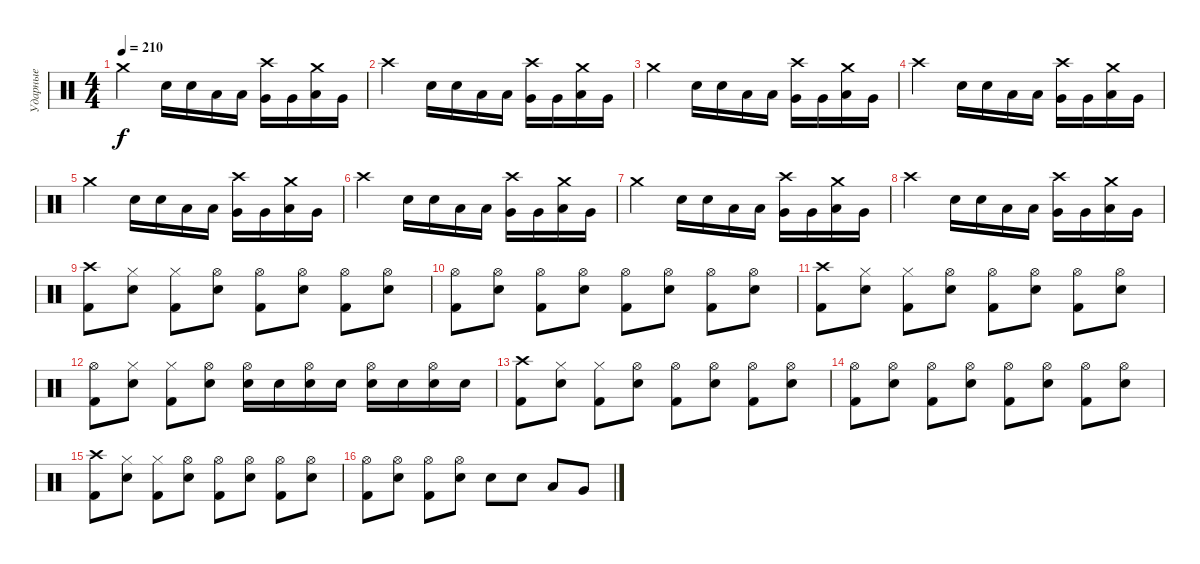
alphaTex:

\track ("Ударные" "Ударные") {instrument percussion}
\staff {score}
\articulation defaults
\ts (4 4)
\tempo 210
\clef neutral
\ks c "Crash medium (hit)".2{dy f} "Snare (hit) 2".16 "Snare (hit) 2".16 "Low Tom (hit)".16 "Low Tom (hit)".16
("Crash high (hit)" "Very Low Tom (hit)").16 "Very Low Tom (hit)".16 ("Crash medium (hit)" "Low Floor Tom (hit)").16 "Very Low Tom (hit)".16 |
"Crash high (hit)".2 "Snare (hit) 2".16 "Snare (hit) 2".16 "Low Tom (hit)".16 "Low Tom (hit)".16 ("Crash high (hit)" "Very Low Tom (hit)").16 "Very Low Tom (hit)".16 ("Crash medium (hit)" "Low Floor Tom (hit)").16 "Very Low Tom (hit)".16 |
"Crash medium (hit)".2 "Snare (hit) 2".16 "Snare (hit) 2".16 "Low Tom (hit)".16 "Low Tom (hit)".16 ("Crash high (hit)" "Very Low Tom (hit)").16 "Very Low Tom (hit)".16 ("Crash medium (hit)" "Low Floor Tom (hit)").16 "Very Low Tom (hit)".16 |
"Crash high (hit)".2 "Snare (hit) 2".16 "Snare (hit) 2".16 "Low Tom (hit)".16 "Low Tom (hit)".16 ("Crash high (hit)" "Very Low Tom (hit)").16 "Very Low Tom (hit)".16 ("Crash medium (hit)" "Low Floor Tom (hit)").16 "Very Low Tom (hit)".16 |
"Crash medium (hit)".2 "Snare (hit) 2".16 "Snare (hit) 2".16 "Low Tom (hit)".16 "Low Tom (hit)".16 ("Crash high (hit)" "Very Low Tom (hit)").16 "Very Low Tom (hit)".16 ("Crash medium (hit)" "Low Floor Tom (hit)").16 "Very Low Tom (hit)".16 |
"Crash high (hit)".2 "Snare (hit) 2".16 "Snare (hit) 2".16 "Low Tom (hit)".16 "Low Tom (hit)".16 ("Crash high (hit)" "Very Low Tom (hit)").16 "Very Low Tom (hit)".16 ("Crash medium (hit)" "Low Floor Tom (hit)").16 "Very Low Tom (hit)".16 |
"Crash medium (hit)".2 "Snare (hit) 2".16 "Snare (hit) 2".16 "Low Tom (hit)".16 "Low Tom (hit)".16 ("Crash high (hit)" "Very Low Tom (hit)").16 "Very Low Tom (hit)".16 ("Crash medium (hit)" "Low Floor Tom (hit)").16 "Very Low Tom (hit)".16 |
"Crash high (hit)".2 "Snare (hit) 2".16 "Snare (hit) 2".16 "Low Tom (hit)".16 "Low Tom (hit)".16 ("Crash high (hit)" "Very Low Tom (hit)").16 "Very Low Tom (hit)".16 ("Crash medium (hit)" "Low Floor Tom (hit)").16 "Very Low Tom (hit)".16 |
("Crash high (hit)" "Kick (hit) 2").8 ("Hi-Hat (closed)" "Snare (hit) 2").8 ("Hi-Hat (closed)" "Kick (hit) 2").8 ("Hi-Hat (open)" "Snare (hit) 2").8 ("Hi-Hat (open)" "Kick (hit) 2").8 ("Hi-Hat (open)" "Snare (hit) 2").8 ("Hi-Hat (open)" "Kick (hit) 2").8 ("Hi-Hat (open)" "Snare (hit) 2").8 |
("Hi-Hat (open)" "Kick (hit) 2").8 ("Hi-Hat (open)" "Snare (hit) 2").8 ("Hi-Hat (open)" "Kick (hit) 2").8 ("Hi-Hat (open)" "Snare (hit) 2").8 ("Hi-Hat (open)" "Kick (hit) 2").8 ("Hi-Hat (open)" "Snare (hit) 2").8 ("Hi-Hat (open)" "Kick (hit) 2").8 ("Hi-Hat (open)" "Snare (hit) 2").8 |
("Crash high (hit)" "Kick (hit) 2").8 ("Hi-Hat (closed)" "Snare (hit) 2").8 ("Hi-Hat (closed)" "Kick (hit) 2").8 ("Hi-Hat (open)" "Snare (hit) 2").8 ("Hi-Hat (open)" "Kick (hit) 2").8 ("Hi-Hat (open)" "Snare (hit) 2").8 ("Hi-Hat (open)" "Kick (hit) 2").8 ("Hi-Hat (open)" "Snare (hit) 2").8 |
("Hi-Hat (open)" "Kick (hit) 2").8 ("Hi-Hat (closed)" "Snare (hit) 2").8 ("Hi-Hat (closed)" "Kick (hit) 2").8 ("Hi-Hat (open)" "Snare (hit) 2").8 ("Hi-Hat (open)" "Electric Snare (hit)").16 "Electric Snare (hit)".16 ("Hi-Hat (open)" "Electric Snare (hit)").16 "Electric Snare (hit)".16 ("Hi-Hat (open)" "Electric Snare (hit)").16 "Electric Snare (hit)".16 ("Hi-Hat (open)" "Electric Snare (hit)").16 "Electric Snare (hit)".16 |
("Crash high (hit)" "Kick (hit) 2").8 ("Hi-Hat (closed)" "Snare (hit) 2").8 ("Hi-Hat (closed)" "Kick (hit) 2").8 ("Hi-Hat (open)" "Snare (hit) 2").8 ("Hi-Hat (open)" "Kick (hit) 2").8 ("Hi-Hat (open)" "Snare (hit) 2").8 ("Hi-Hat (open)" "Kick (hit) 2").8 ("Hi-Hat (open)" "Snare (hit) 2").8 |
("Hi-Hat (open)" "Kick (hit) 2").8 ("Hi-Hat (open)" "Snare (hit) 2").8 ("Hi-Hat (open)" "Kick (hit) 2").8 ("Hi-Hat (open)" "Snare (hit) 2").8 ("Hi-Hat (open)" "Kick (hit) 2").8 ("Hi-Hat (open)" "Snare (hit) 2").8 ("Hi-Hat (open)" "Kick (hit) 2").8 ("Hi-Hat (open)" "Snare (hit) 2").8 |
("Crash high (hit)" "Kick (hit) 2").8 ("Hi-Hat (closed)" "Snare (hit) 2").8 ("Hi-Hat (closed)" "Kick (hit) 2").8 ("Hi-Hat (open)" "Snare (hit) 2").8 ("Hi-Hat (open)" "Kick (hit) 2").8 ("Hi-Hat (open)" "Snare (hit) 2").8 ("Hi-Hat (open)" "Kick (hit) 2").8 ("Hi-Hat (open)" "Snare (hit) 2").8 |
("Hi-Hat (open)" "Kick (hit) 2").8 ("Hi-Hat (open)" "Snare (hit) 2").8 ("Hi-Hat (open)" "Kick (hit) 2").8 ("Hi-Hat (open)" "Snare (hit) 2").8 "Snare (hit) 2".8 "Electric Snare (hit)".8 "Low Tom (hit)".8 "Very Low Tom (hit)".8
